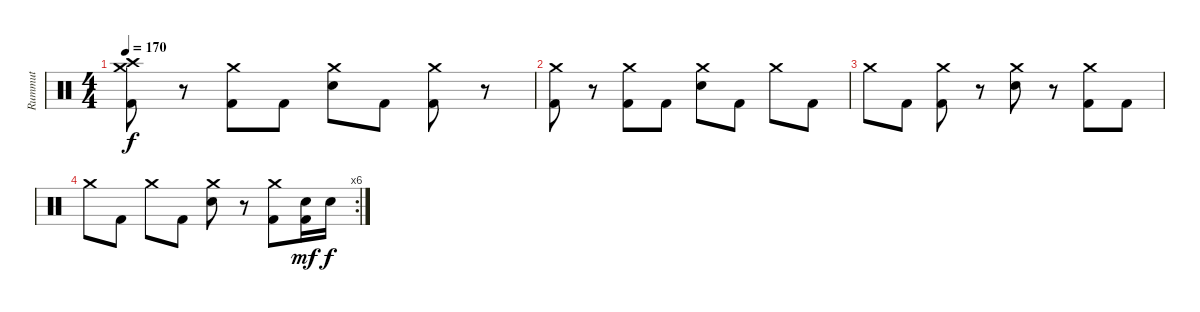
\track ("Rummut" "Rummut") {instrument percussion}
\staff {score}
\articulation defaults
\ts (4 4)
\tempo 170
\clef neutral
\ks c
("Crash medium (hit)" "Crash high (hit)" "Kick (hit) 2").8{dy f} r.8 ("Crash medium (hit)" "Kick (hit) 2").8 "Kick (hit) 2".8 ("Crash medium (hit)" "Electric Snare (hit)").8 "Kick (hit) 2".8 ("Crash medium (hit)" "Kick (hit) 2").8 r.8 |
("Crash medium (hit)" "Kick (hit) 2").8 r.8 ("Crash medium (hit)" "Kick (hit) 2").8 "Kick (hit) 2".8 ("Crash medium (hit)" "Electric Snare (hit)").8 "Kick (hit) 2".8 "Crash medium (hit)".8 "Kick (hit) 2".8 |
"Crash medium (hit)".8 "Kick (hit) 2".8 ("Crash medium (hit)" "Kick (hit) 2").8 r.8 ("Crash medium (hit)" "Electric Snare (hit)").8 r.8 ("Crash medium (hit)" "Kick (hit) 2").8 "Kick (hit) 2".8 |
\rc 6 "Crash medium (hit)".8 "Kick (hit) 2".8 "Crash medium (hit)".8 "Kick (hit) 2".8
("Crash medium (hit)" "Electric Snare (hit)").8 r.8 ("Crash medium (hit)" "Kick (hit) 2").8 ("Electric Snare (hit)" "Kick (hit) 2").16{dy mf} "Electric Snare (hit)".16{dy f}
